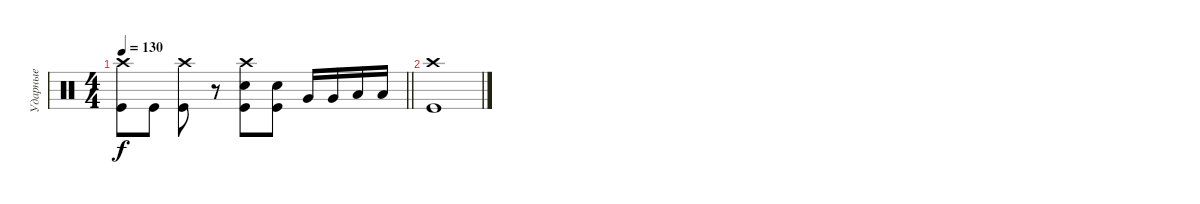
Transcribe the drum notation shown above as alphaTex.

\track ("Ударные" "Ударные") {instrument percussion}
\staff {score}
\articulation defaults
\ts (4 4)
\tempo 130
\clef neutral
\barLineRight lightlight
\ks c
("Crash high (hit)" "Kick (hit)").8{dy f} "Kick (hit)".8 ("Crash high (hit)" "Kick (hit)").8 r.8 ("Crash high (hit)" "Electric Snare (hit)" "Kick (hit)").8 ("Electric Snare (hit)" "Kick (hit)").8 "Very Low Tom (hit)".16 "Very Low Tom (hit)".16 "Low Floor Tom (hit)".16 "Low Floor Tom (hit)".16 |
("Kick (hit)" "Crash high (hit)").1
